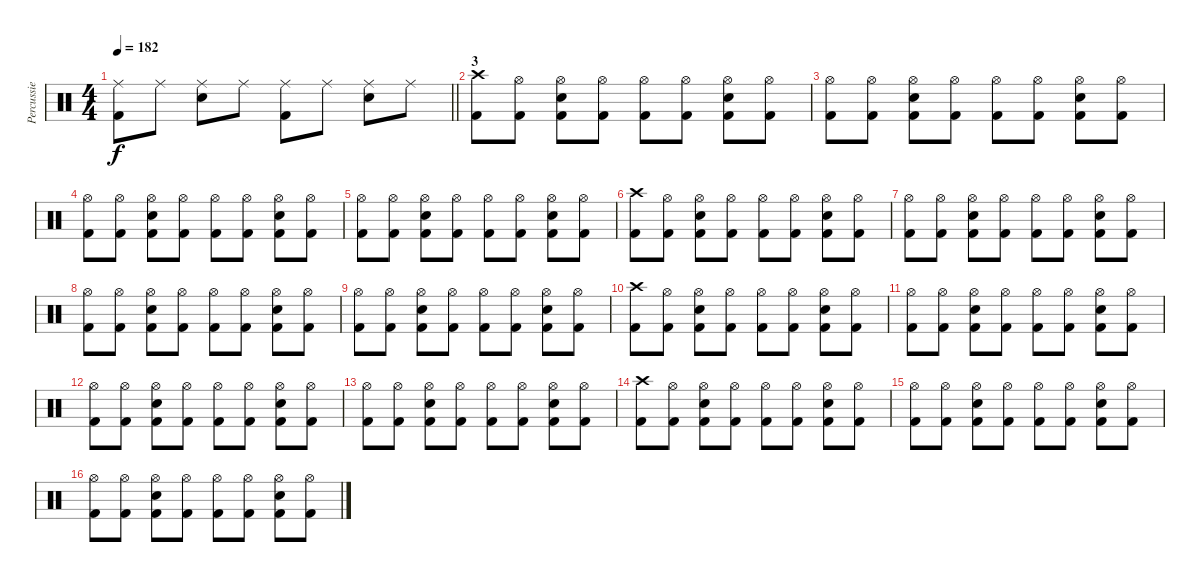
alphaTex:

\track ("Percussie" "Percussie") {instrument percussion}
\staff {score}
\articulation defaults
\ts (4 4)
\tempo 182
\clef neutral
\barLineRight lightlight
\ks c
("Ride (middle)" "Kick (hit) 2").8{dy f} "Ride (middle)".8 ("Ride (middle)" "Snare (hit) 2").8 "Ride (middle)".8 ("Ride (middle)" "Kick (hit) 2").8 "Ride (middle)".8 ("Ride (middle)" "Snare (hit) 2").8 "Ride (middle)".8 |
\section ("" "3")
("Crash high (hit)" "Kick (hit) 2").8 ("Hi-Hat (open)" "Kick (hit) 2").8 ("Hi-Hat (open)" "Snare (hit) 2" "Kick (hit) 2").8 ("Hi-Hat (open)" "Kick (hit) 2").8 ("Hi-Hat (open)" "Kick (hit) 2").8 ("Hi-Hat (open)" "Kick (hit) 2").8 ("Hi-Hat (open)" "Snare (hit) 2" "Kick (hit) 2").8 ("Hi-Hat (open)" "Kick (hit) 2").8 |
("Hi-Hat (open)" "Kick (hit) 2").8 ("Hi-Hat (open)" "Kick (hit) 2").8 ("Hi-Hat (open)" "Snare (hit) 2" "Kick (hit) 2").8 ("Hi-Hat (open)" "Kick (hit) 2").8 ("Hi-Hat (open)" "Kick (hit) 2").8 ("Hi-Hat (open)" "Kick (hit) 2").8 ("Hi-Hat (open)" "Snare (hit) 2" "Kick (hit) 2").8 ("Hi-Hat (open)" "Kick (hit) 2").8 |
("Hi-Hat (open)" "Kick (hit) 2").8 ("Hi-Hat (open)" "Kick (hit) 2").8 ("Hi-Hat (open)" "Snare (hit) 2" "Kick (hit) 2").8 ("Hi-Hat (open)" "Kick (hit) 2").8 ("Hi-Hat (open)" "Kick (hit) 2").8 ("Hi-Hat (open)" "Kick (hit) 2").8 ("Hi-Hat (open)" "Snare (hit) 2" "Kick (hit) 2").8 ("Hi-Hat (open)" "Kick (hit) 2").8 |
("Hi-Hat (open)" "Kick (hit) 2").8 ("Hi-Hat (open)" "Kick (hit) 2").8 ("Hi-Hat (open)" "Snare (hit) 2" "Kick (hit) 2").8 ("Hi-Hat (open)" "Kick (hit) 2").8 ("Hi-Hat (open)" "Kick (hit) 2").8 ("Hi-Hat (open)" "Kick (hit) 2").8 ("Hi-Hat (open)" "Snare (hit) 2" "Kick (hit) 2").8 ("Hi-Hat (open)" "Kick (hit) 2").8 |
("Crash high (hit)" "Kick (hit) 2").8 ("Hi-Hat (open)" "Kick (hit) 2").8 ("Hi-Hat (open)" "Snare (hit) 2" "Kick (hit) 2").8 ("Hi-Hat (open)" "Kick (hit) 2").8 ("Hi-Hat (open)" "Kick (hit) 2").8 ("Hi-Hat (open)" "Kick (hit) 2").8 ("Hi-Hat (open)" "Snare (hit) 2" "Kick (hit) 2").8 ("Hi-Hat (open)" "Kick (hit) 2").8 |
("Hi-Hat (open)" "Kick (hit) 2").8 ("Hi-Hat (open)" "Kick (hit) 2").8 ("Hi-Hat (open)" "Snare (hit) 2" "Kick (hit) 2").8 ("Hi-Hat (open)" "Kick (hit) 2").8 ("Hi-Hat (open)" "Kick (hit) 2").8 ("Hi-Hat (open)" "Kick (hit) 2").8 ("Hi-Hat (open)" "Snare (hit) 2" "Kick (hit) 2").8 ("Hi-Hat (open)" "Kick (hit) 2").8 |
("Hi-Hat (open)" "Kick (hit) 2").8 ("Hi-Hat (open)" "Kick (hit) 2").8 ("Hi-Hat (open)" "Snare (hit) 2" "Kick (hit) 2").8 ("Hi-Hat (open)" "Kick (hit) 2").8 ("Hi-Hat (open)" "Kick (hit) 2").8 ("Hi-Hat (open)" "Kick (hit) 2").8 ("Hi-Hat (open)" "Snare (hit) 2" "Kick (hit) 2").8 ("Hi-Hat (open)" "Kick (hit) 2").8 |
("Hi-Hat (open)" "Kick (hit) 2").8 ("Hi-Hat (open)" "Kick (hit) 2").8 ("Hi-Hat (open)" "Snare (hit) 2" "Kick (hit) 2").8 ("Hi-Hat (open)" "Kick (hit) 2").8 ("Hi-Hat (open)" "Kick (hit) 2").8 ("Hi-Hat (open)" "Kick (hit) 2").8 ("Hi-Hat (open)" "Snare (hit) 2" "Kick (hit) 2").8 ("Hi-Hat (open)" "Kick (hit) 2").8 |
("Crash high (hit)" "Kick (hit) 2").8 ("Hi-Hat (open)" "Kick (hit) 2").8 ("Hi-Hat (open)" "Snare (hit) 2" "Kick (hit) 2").8 ("Hi-Hat (open)" "Kick (hit) 2").8 ("Hi-Hat (open)" "Kick (hit) 2").8 ("Hi-Hat (open)" "Kick (hit) 2").8 ("Hi-Hat (open)" "Snare (hit) 2" "Kick (hit) 2").8 ("Hi-Hat (open)" "Kick (hit) 2").8 |
("Hi-Hat (open)" "Kick (hit) 2").8 ("Hi-Hat (open)" "Kick (hit) 2").8 ("Hi-Hat (open)" "Snare (hit) 2" "Kick (hit) 2").8 ("Hi-Hat (open)" "Kick (hit) 2").8 ("Hi-Hat (open)" "Kick (hit) 2").8 ("Hi-Hat (open)" "Kick (hit) 2").8 ("Hi-Hat (open)" "Snare (hit) 2" "Kick (hit) 2").8 ("Hi-Hat (open)" "Kick (hit) 2").8 |
("Hi-Hat (open)" "Kick (hit) 2").8 ("Hi-Hat (open)" "Kick (hit) 2").8 ("Hi-Hat (open)" "Snare (hit) 2" "Kick (hit) 2").8 ("Hi-Hat (open)" "Kick (hit) 2").8 ("Hi-Hat (open)" "Kick (hit) 2").8 ("Hi-Hat (open)" "Kick (hit) 2").8 ("Hi-Hat (open)" "Snare (hit) 2" "Kick (hit) 2").8 ("Hi-Hat (open)" "Kick (hit) 2").8 |
("Hi-Hat (open)" "Kick (hit) 2").8 ("Hi-Hat (open)" "Kick (hit) 2").8 ("Hi-Hat (open)" "Snare (hit) 2" "Kick (hit) 2").8 ("Hi-Hat (open)" "Kick (hit) 2").8 ("Hi-Hat (open)" "Kick (hit) 2").8 ("Hi-Hat (open)" "Kick (hit) 2").8 ("Hi-Hat (open)" "Snare (hit) 2" "Kick (hit) 2").8 ("Hi-Hat (open)" "Kick (hit) 2").8 |
("Crash high (hit)" "Kick (hit) 2").8 ("Hi-Hat (open)" "Kick (hit) 2").8 ("Hi-Hat (open)" "Snare (hit) 2" "Kick (hit) 2").8 ("Hi-Hat (open)" "Kick (hit) 2").8 ("Hi-Hat (open)" "Kick (hit) 2").8 ("Hi-Hat (open)" "Kick (hit) 2").8 ("Hi-Hat (open)" "Snare (hit) 2" "Kick (hit) 2").8 ("Hi-Hat (open)" "Kick (hit) 2").8 |
("Hi-Hat (open)" "Kick (hit) 2").8 ("Hi-Hat (open)" "Kick (hit) 2").8 ("Hi-Hat (open)" "Snare (hit) 2" "Kick (hit) 2").8 ("Hi-Hat (open)" "Kick (hit) 2").8 ("Hi-Hat (open)" "Kick (hit) 2").8 ("Hi-Hat (open)" "Kick (hit) 2").8 ("Hi-Hat (open)" "Snare (hit) 2" "Kick (hit) 2").8 ("Hi-Hat (open)" "Kick (hit) 2").8 |
("Hi-Hat (open)" "Kick (hit) 2").8 ("Hi-Hat (open)" "Kick (hit) 2").8 ("Hi-Hat (open)" "Snare (hit) 2" "Kick (hit) 2").8 ("Hi-Hat (open)" "Kick (hit) 2").8 ("Hi-Hat (open)" "Kick (hit) 2").8 ("Hi-Hat (open)" "Kick (hit) 2").8 ("Hi-Hat (open)" "Snare (hit) 2" "Kick (hit) 2").8 ("Hi-Hat (open)" "Kick (hit) 2").8
